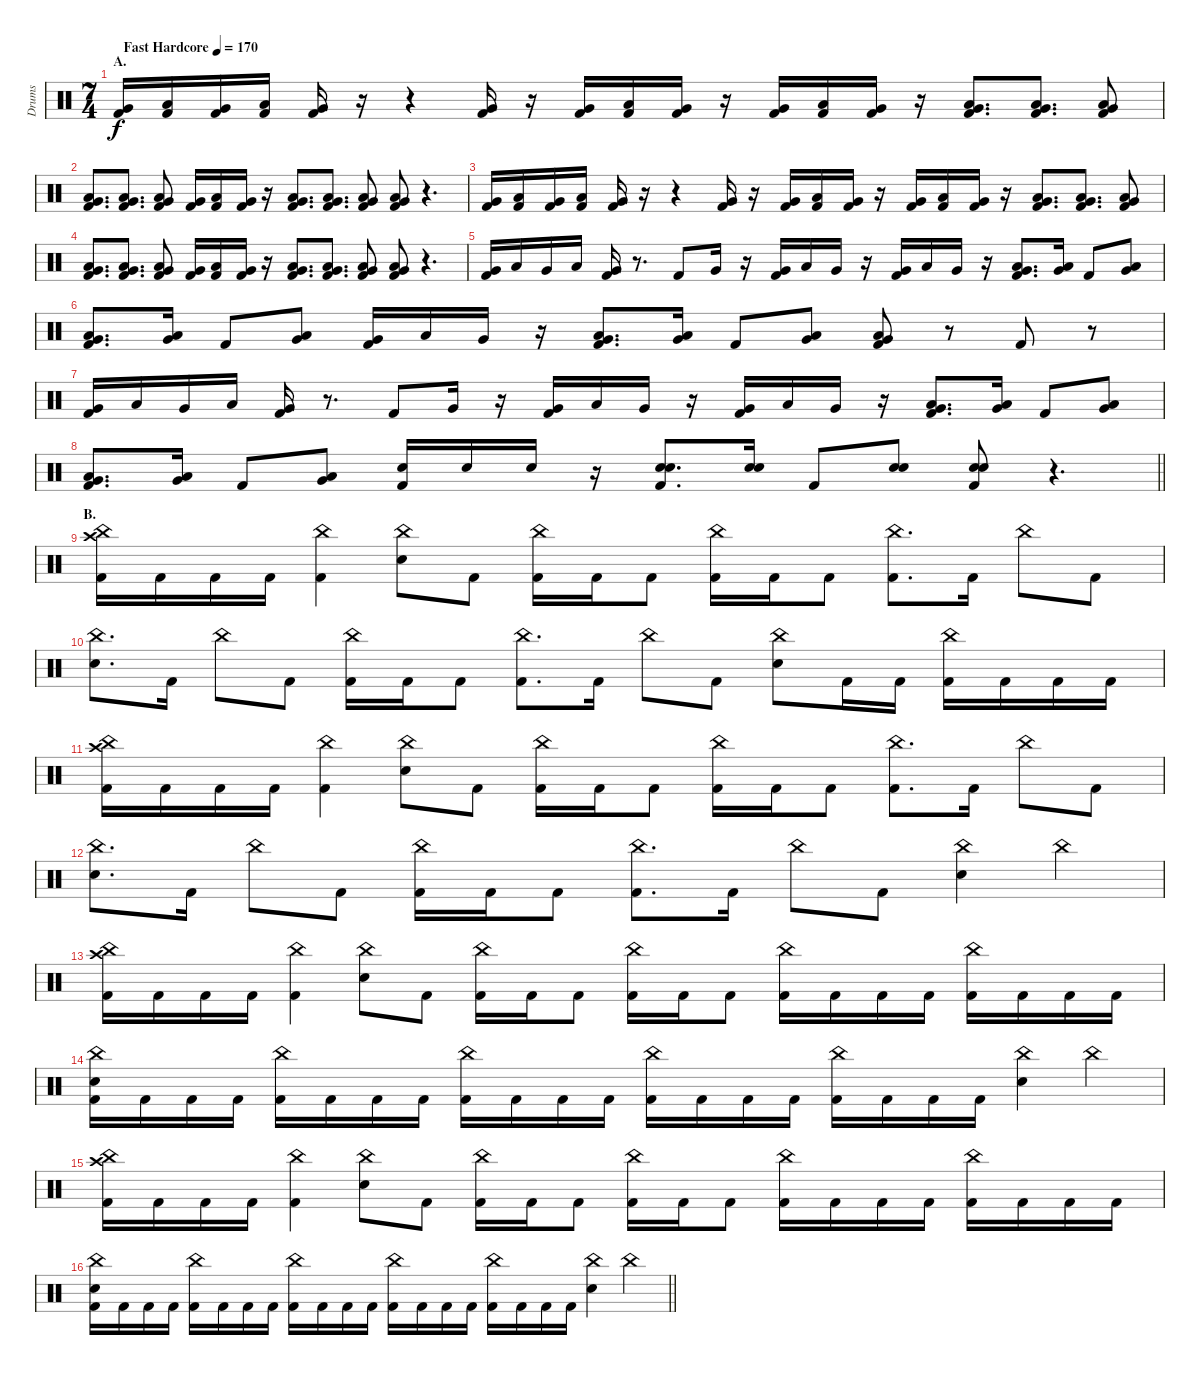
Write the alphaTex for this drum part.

\track ("Drums" "Drums") {instrument percussion}
\staff {score}
\articulation defaults
\ts (7 4)
\section ("" "A.")
\tempo (170 "Fast Hardcore")
\clef neutral
\ks c
("Very Low Tom (hit)" "Kick (hit) 2").16{dy f} ("Low Floor Tom (hit)" "Kick (hit) 2").16 ("Very Low Tom (hit)" "Kick (hit) 2").16 ("Low Floor Tom (hit)" "Kick (hit) 2").16 ("Very Low Tom (hit)" "Kick (hit) 2").16 r.16 r.4 ("Very Low Tom (hit)" "Kick (hit) 2").16 r.16 ("Very Low Tom (hit)" "Kick (hit) 2").16 ("Low Floor Tom (hit)" "Kick (hit) 2").16 ("Very Low Tom (hit)" "Kick (hit) 2").16 r.16 ("Very Low Tom (hit)" "Kick (hit) 2").16 ("Low Floor Tom (hit)" "Kick (hit) 2").16 ("Very Low Tom (hit)" "Kick (hit) 2").16 r.16 ("Very Low Tom (hit)" "Low Floor Tom (hit)" "Kick (hit) 2").8{d} ("Very Low Tom (hit)" "Low Floor Tom (hit)" "Kick (hit) 2").8{d} ("Very Low Tom (hit)" "Low Floor Tom (hit)" "Kick (hit) 2").8 |
("Very Low Tom (hit)" "Low Floor Tom (hit)" "Kick (hit) 2").8{d} ("Very Low Tom (hit)" "Low Floor Tom (hit)" "Kick (hit) 2").8{d} ("Very Low Tom (hit)" "Low Floor Tom (hit)" "Kick (hit) 2").8 ("Very Low Tom (hit)" "Kick (hit) 2").16 ("Low Floor Tom (hit)" "Kick (hit) 2").16 ("Very Low Tom (hit)" "Kick (hit) 2").16 r.16 ("Very Low Tom (hit)" "Low Floor Tom (hit)" "Kick (hit) 2").8{d} ("Very Low Tom (hit)" "Low Floor Tom (hit)" "Kick (hit) 2").8{d} ("Very Low Tom (hit)" "Low Floor Tom (hit)" "Kick (hit) 2").8 ("Very Low Tom (hit)" "Low Floor Tom (hit)" "Kick (hit) 2").8 r.4{d} |
("Very Low Tom (hit)" "Kick (hit) 2").16 ("Low Floor Tom (hit)" "Kick (hit) 2").16 ("Very Low Tom (hit)" "Kick (hit) 2").16 ("Low Floor Tom (hit)" "Kick (hit) 2").16 ("Very Low Tom (hit)" "Kick (hit) 2").16 r.16 r.4 ("Very Low Tom (hit)" "Kick (hit) 2").16 r.16 ("Very Low Tom (hit)" "Kick (hit) 2").16 ("Low Floor Tom (hit)" "Kick (hit) 2").16 ("Very Low Tom (hit)" "Kick (hit) 2").16 r.16 ("Very Low Tom (hit)" "Kick (hit) 2").16 ("Low Floor Tom (hit)" "Kick (hit) 2").16 ("Very Low Tom (hit)" "Kick (hit) 2").16 r.16 ("Very Low Tom (hit)" "Low Floor Tom (hit)" "Kick (hit) 2").8{d} ("Very Low Tom (hit)" "Low Floor Tom (hit)" "Kick (hit) 2").8{d} ("Very Low Tom (hit)" "Low Floor Tom (hit)" "Kick (hit) 2").8 |
("Very Low Tom (hit)" "Low Floor Tom (hit)" "Kick (hit) 2").8{d} ("Very Low Tom (hit)" "Low Floor Tom (hit)" "Kick (hit) 2").8{d} ("Very Low Tom (hit)" "Low Floor Tom (hit)" "Kick (hit) 2").8 ("Very Low Tom (hit)" "Kick (hit) 2").16 ("Low Floor Tom (hit)" "Kick (hit) 2").16 ("Very Low Tom (hit)" "Kick (hit) 2").16 r.16 ("Very Low Tom (hit)" "Low Floor Tom (hit)" "Kick (hit) 2").8{d} ("Very Low Tom (hit)" "Low Floor Tom (hit)" "Kick (hit) 2").8{d} ("Very Low Tom (hit)" "Low Floor Tom (hit)" "Kick (hit) 2").8 ("Very Low Tom (hit)" "Low Floor Tom (hit)" "Kick (hit) 2").8 r.4{d} |
("Very Low Tom (hit)" "Kick (hit) 2").16 "Low Floor Tom (hit)".16 "Very Low Tom (hit)".16 "Low Floor Tom (hit)".16 ("Very Low Tom (hit)" "Kick (hit) 2").16 r.8{d} "Kick (hit) 2".8 "Very Low Tom (hit)".16 r.16 ("Very Low Tom (hit)" "Kick (hit) 2").16 "Low Floor Tom (hit)".16 "Very Low Tom (hit)".16 r.16 ("Very Low Tom (hit)" "Kick (hit) 2").16 "Low Floor Tom (hit)".16 "Very Low Tom (hit)".16 r.16 ("Very Low Tom (hit)" "Low Floor Tom (hit)" "Kick (hit) 2").8{d} ("Very Low Tom (hit)" "Low Floor Tom (hit)").16 "Kick (hit) 2".8 ("Very Low Tom (hit)" "Low Floor Tom (hit)").8 |
("Very Low Tom (hit)" "Low Floor Tom (hit)" "Kick (hit) 2").8{d} ("Very Low Tom (hit)" "Low Floor Tom (hit)").16 "Kick (hit) 2".8 ("Very Low Tom (hit)" "Low Floor Tom (hit)").8 ("Very Low Tom (hit)" "Kick (hit) 2").16 "Low Floor Tom (hit)".16 "Very Low Tom (hit)".16 r.16 ("Very Low Tom (hit)" "Low Floor Tom (hit)" "Kick (hit) 2").8{d} ("Very Low Tom (hit)" "Low Floor Tom (hit)").16 "Kick (hit) 2".8 ("Very Low Tom (hit)" "Low Floor Tom (hit)").8 ("Very Low Tom (hit)" "Low Floor Tom (hit)" "Kick (hit) 2").8 r.8 "Kick (hit) 2".8 r.8 |
("Very Low Tom (hit)" "Kick (hit) 2").16 "Low Floor Tom (hit)".16 "Very Low Tom (hit)".16 "Low Floor Tom (hit)".16 ("Very Low Tom (hit)" "Kick (hit) 2").16 r.8{d} "Kick (hit) 2".8 "Very Low Tom (hit)".16 r.16 ("Very Low Tom (hit)" "Kick (hit) 2").16 "Low Floor Tom (hit)".16 "Very Low Tom (hit)".16 r.16 ("Very Low Tom (hit)" "Kick (hit) 2").16 "Low Floor Tom (hit)".16 "Very Low Tom (hit)".16 r.16 ("Very Low Tom (hit)" "Low Floor Tom (hit)" "Kick (hit) 2").8{d} ("Very Low Tom (hit)" "Low Floor Tom (hit)").16 "Kick (hit) 2".8 ("Very Low Tom (hit)" "Low Floor Tom (hit)").8 |
\barLineRight lightlight
("Very Low Tom (hit)" "Low Floor Tom (hit)" "Kick (hit) 2").8{d} ("Very Low Tom (hit)" "Low Floor Tom (hit)").16 "Kick (hit) 2".8 ("Very Low Tom (hit)" "Low Floor Tom (hit)").8 ("Electric Snare (hit)" "Kick (hit) 2").16 "Electric Snare (hit)".16 "Electric Snare (hit)".16 r.16 ("Electric Snare (hit)" "Electric Snare (hit)" "Kick (hit) 2").8{d} ("Electric Snare (hit)" "Electric Snare (hit)").16 "Kick (hit) 2".8 ("Electric Snare (hit)" "Electric Snare (hit)").8 ("Electric Snare (hit)" "Electric Snare (hit)" "Kick (hit) 2").8 r.4{d} |
\section ("" "B.")
("China (hit)" "Crash high (hit)" "Kick (hit) 2").16 "Kick (hit) 2".16 "Kick (hit) 2".16 "Kick (hit) 2".16 ("China (hit)" "Kick (hit) 2").4 ("China (hit)" "Electric Snare (hit)").8 "Kick (hit) 2".8 ("China (hit)" "Kick (hit) 2").16 "Kick (hit) 2".16 "Kick (hit) 2".8 ("China (hit)" "Kick (hit) 2").16 "Kick (hit) 2".16 "Kick (hit) 2".8 ("China (hit)" "Kick (hit) 2").8{d} "Kick (hit) 2".16 "China (hit)".8 "Kick (hit) 2".8 |
("China (hit)" "Electric Snare (hit)").8{d} "Kick (hit) 2".16 "China (hit)".8 "Kick (hit) 2".8 ("China (hit)" "Kick (hit) 2").16 "Kick (hit) 2".16 "Kick (hit) 2".8 ("China (hit)" "Kick (hit) 2").8{d} "Kick (hit) 2".16 "China (hit)".8 "Kick (hit) 2".8 ("China (hit)" "Electric Snare (hit)").8 "Kick (hit) 2".16 "Kick (hit) 2".16 ("China (hit)" "Kick (hit) 2").16 "Kick (hit) 2".16 "Kick (hit) 2".16 "Kick (hit) 2".16 |
("China (hit)" "Crash high (hit)" "Kick (hit) 2").16 "Kick (hit) 2".16 "Kick (hit) 2".16 "Kick (hit) 2".16 ("China (hit)" "Kick (hit) 2").4 ("China (hit)" "Electric Snare (hit)").8 "Kick (hit) 2".8 ("China (hit)" "Kick (hit) 2").16 "Kick (hit) 2".16 "Kick (hit) 2".8 ("China (hit)" "Kick (hit) 2").16 "Kick (hit) 2".16 "Kick (hit) 2".8 ("China (hit)" "Kick (hit) 2").8{d} "Kick (hit) 2".16 "China (hit)".8 "Kick (hit) 2".8 |
("China (hit)" "Electric Snare (hit)").8{d} "Kick (hit) 2".16 "China (hit)".8 "Kick (hit) 2".8 ("China (hit)" "Kick (hit) 2").16 "Kick (hit) 2".16 "Kick (hit) 2".8 ("China (hit)" "Kick (hit) 2").8{d} "Kick (hit) 2".16 "China (hit)".8 "Kick (hit) 2".8 ("China (hit)" "Electric Snare (hit)").4 "China (hit)".4 |
("China (hit)" "Crash high (hit)" "Kick (hit) 2").16 "Kick (hit) 2".16 "Kick (hit) 2".16 "Kick (hit) 2".16 ("China (hit)" "Kick (hit) 2").4 ("China (hit)" "Electric Snare (hit)").8 "Kick (hit) 2".8 ("China (hit)" "Kick (hit) 2").16 "Kick (hit) 2".16 "Kick (hit) 2".8 ("China (hit)" "Kick (hit) 2").16 "Kick (hit) 2".16 "Kick (hit) 2".8 ("China (hit)" "Kick (hit) 2").16 "Kick (hit) 2".16 "Kick (hit) 2".16 "Kick (hit) 2".16 ("China (hit)" "Kick (hit) 2").16 "Kick (hit) 2".16 "Kick (hit) 2".16 "Kick (hit) 2".16 |
("China (hit)" "Electric Snare (hit)" "Kick (hit) 2").16 "Kick (hit) 2".16 "Kick (hit) 2".16 "Kick (hit) 2".16 ("China (hit)" "Kick (hit) 2").16 "Kick (hit) 2".16 "Kick (hit) 2".16 "Kick (hit) 2".16 ("China (hit)" "Kick (hit) 2").16 "Kick (hit) 2".16 "Kick (hit) 2".16 "Kick (hit) 2".16 ("China (hit)" "Kick (hit) 2").16 "Kick (hit) 2".16 "Kick (hit) 2".16 "Kick (hit) 2".16 ("China (hit)" "Kick (hit) 2").16 "Kick (hit) 2".16 "Kick (hit) 2".16 "Kick (hit) 2".16 ("China (hit)" "Electric Snare (hit)").4 "China (hit)".4 |
("China (hit)" "Crash high (hit)" "Kick (hit) 2").16 "Kick (hit) 2".16 "Kick (hit) 2".16 "Kick (hit) 2".16 ("China (hit)" "Kick (hit) 2").4 ("China (hit)" "Electric Snare (hit)").8 "Kick (hit) 2".8 ("China (hit)" "Kick (hit) 2").16 "Kick (hit) 2".16 "Kick (hit) 2".8 ("China (hit)" "Kick (hit) 2").16 "Kick (hit) 2".16 "Kick (hit) 2".8 ("China (hit)" "Kick (hit) 2").16 "Kick (hit) 2".16 "Kick (hit) 2".16 "Kick (hit) 2".16 ("China (hit)" "Kick (hit) 2").16 "Kick (hit) 2".16 "Kick (hit) 2".16 "Kick (hit) 2".16 |
\barLineRight lightlight
("China (hit)" "Electric Snare (hit)" "Kick (hit) 2").16 "Kick (hit) 2".16 "Kick (hit) 2".16 "Kick (hit) 2".16 ("China (hit)" "Kick (hit) 2").16 "Kick (hit) 2".16 "Kick (hit) 2".16 "Kick (hit) 2".16 ("China (hit)" "Kick (hit) 2").16 "Kick (hit) 2".16 "Kick (hit) 2".16 "Kick (hit) 2".16 ("China (hit)" "Kick (hit) 2").16 "Kick (hit) 2".16 "Kick (hit) 2".16 "Kick (hit) 2".16 ("China (hit)" "Kick (hit) 2").16 "Kick (hit) 2".16 "Kick (hit) 2".16 "Kick (hit) 2".16 ("China (hit)" "Electric Snare (hit)").4 "China (hit)".4
